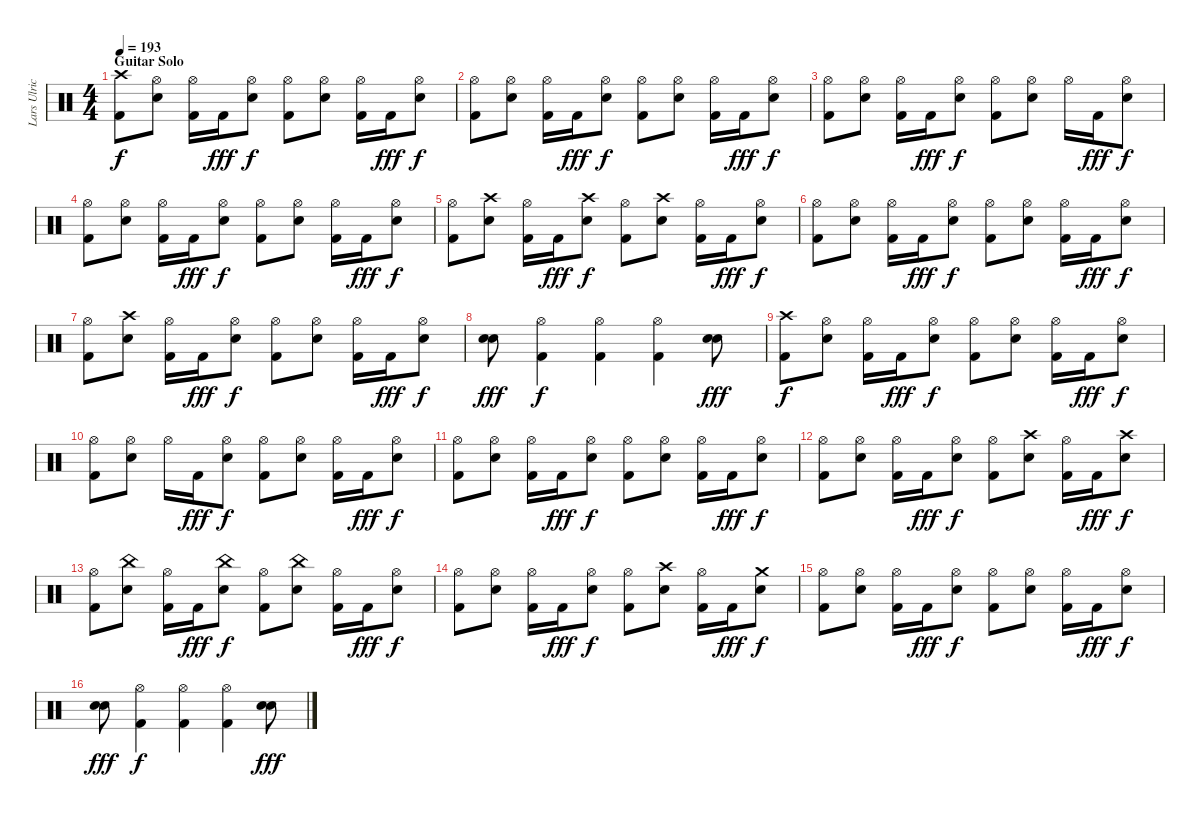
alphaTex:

\track ("Lars Ulrich - Drums" "Lars Ulric") {instrument percussion}
\staff {score}
\articulation defaults
\ts (4 4)
\section ("" "Guitar Solo")
\tempo 193
\clef neutral
\ks c
("Crash high (hit)" "Kick (hit) 2").8{dy f} ("Hi-Hat (open)" "Snare (hit) 2").8 ("Hi-Hat (open)" "Kick (hit) 2").16 "Kick (hit) 2".16{dy fff} ("Hi-Hat (open)" "Snare (hit) 2").8{dy f} ("Hi-Hat (open)" "Kick (hit) 2").8 ("Hi-Hat (open)" "Snare (hit) 2").8 ("Hi-Hat (open)" "Kick (hit) 2").16 "Kick (hit) 2".16{dy fff} ("Hi-Hat (open)" "Snare (hit) 2").8{dy f} |
("Hi-Hat (open)" "Kick (hit) 2").8 ("Hi-Hat (open)" "Snare (hit) 2").8 ("Hi-Hat (open)" "Kick (hit) 2").16 "Kick (hit) 2".16{dy fff} ("Hi-Hat (open)" "Snare (hit) 2").8{dy f} ("Hi-Hat (open)" "Kick (hit) 2").8 ("Hi-Hat (open)" "Snare (hit) 2").8 ("Hi-Hat (open)" "Kick (hit) 2").16 "Kick (hit) 2".16{dy fff} ("Hi-Hat (open)" "Snare (hit) 2").8{dy f} |
("Hi-Hat (open)" "Kick (hit) 2").8 ("Hi-Hat (open)" "Snare (hit) 2").8 ("Hi-Hat (open)" "Kick (hit) 2").16 "Kick (hit) 2".16{dy fff} ("Hi-Hat (open)" "Snare (hit) 2").8{dy f} ("Hi-Hat (open)" "Kick (hit) 2").8 ("Hi-Hat (open)" "Snare (hit) 2").8 "Hi-Hat (open)".16 "Kick (hit) 2".16{dy fff} ("Hi-Hat (open)" "Snare (hit) 2").8{dy f} |
("Hi-Hat (open)" "Kick (hit) 2").8 ("Hi-Hat (open)" "Snare (hit) 2").8 ("Hi-Hat (open)" "Kick (hit) 2").16 "Kick (hit) 2".16{dy fff} ("Hi-Hat (open)" "Snare (hit) 2").8{dy f} ("Hi-Hat (open)" "Kick (hit) 2").8 ("Hi-Hat (open)" "Snare (hit) 2").8 ("Hi-Hat (open)" "Kick (hit) 2").16 "Kick (hit) 2".16{dy fff} ("Hi-Hat (open)" "Snare (hit) 2").8{dy f} |
("Hi-Hat (open)" "Kick (hit) 2").8 ("Crash high (hit)" "Snare (hit) 2").8 ("Hi-Hat (open)" "Kick (hit) 2").16 "Kick (hit) 2".16{dy fff} ("Crash high (hit)" "Snare (hit) 2").8{dy f} ("Hi-Hat (open)" "Kick (hit) 2").8 ("Crash high (hit)" "Snare (hit) 2").8 ("Hi-Hat (open)" "Kick (hit) 2").16 "Kick (hit) 2".16{dy fff} ("Hi-Hat (open)" "Snare (hit) 2").8{dy f} |
("Hi-Hat (open)" "Kick (hit) 2").8 ("Hi-Hat (open)" "Snare (hit) 2").8 ("Hi-Hat (open)" "Kick (hit) 2").16 "Kick (hit) 2".16{dy fff} ("Hi-Hat (open)" "Snare (hit) 2").8{dy f} ("Hi-Hat (open)" "Kick (hit) 2").8 ("Hi-Hat (open)" "Snare (hit) 2").8 ("Hi-Hat (open)" "Kick (hit) 2").16 "Kick (hit) 2".16{dy fff} ("Hi-Hat (open)" "Snare (hit) 2").8{dy f} |
("Hi-Hat (open)" "Kick (hit) 2").8 ("Crash high (hit)" "Snare (hit) 2").8 ("Hi-Hat (open)" "Kick (hit) 2").16 "Kick (hit) 2".16{dy fff} ("Hi-Hat (open)" "Snare (hit) 2").8{dy f} ("Hi-Hat (open)" "Kick (hit) 2").8 ("Hi-Hat (open)" "Snare (hit) 2").8 ("Hi-Hat (open)" "Kick (hit) 2").16 "Kick (hit) 2".16{dy fff} ("Hi-Hat (open)" "Snare (hit) 2").8{dy f} |
("Snare (hit) 2" "Snare (hit) 2").8{dy fff} ("Hi-Hat (open)" "Kick (hit) 2").4{dy f} ("Hi-Hat (open)" "Kick (hit) 2").4 ("Hi-Hat (open)" "Kick (hit) 2").4 ("Snare (hit) 2" "Snare (hit) 2").8{dy fff} |
("Crash high (hit)" "Kick (hit) 2").8{dy f} ("Hi-Hat (open)" "Snare (hit) 2").8 ("Hi-Hat (open)" "Kick (hit) 2").16 "Kick (hit) 2".16{dy fff} ("Hi-Hat (open)" "Snare (hit) 2").8{dy f} ("Hi-Hat (open)" "Kick (hit) 2").8 ("Hi-Hat (open)" "Snare (hit) 2").8 ("Hi-Hat (open)" "Kick (hit) 2").16 "Kick (hit) 2".16{dy fff} ("Hi-Hat (open)" "Snare (hit) 2").8{dy f} |
("Hi-Hat (open)" "Kick (hit) 2").8 ("Hi-Hat (open)" "Snare (hit) 2").8 "Hi-Hat (open)".16 "Kick (hit) 2".16{dy fff} ("Hi-Hat (open)" "Snare (hit) 2").8{dy f} ("Hi-Hat (open)" "Kick (hit) 2").8 ("Hi-Hat (open)" "Snare (hit) 2").8 ("Hi-Hat (open)" "Kick (hit) 2").16 "Kick (hit) 2".16{dy fff} ("Hi-Hat (open)" "Snare (hit) 2").8{dy f} |
("Hi-Hat (open)" "Kick (hit) 2").8 ("Hi-Hat (open)" "Snare (hit) 2").8 ("Hi-Hat (open)" "Kick (hit) 2").16 "Kick (hit) 2".16{dy fff} ("Hi-Hat (open)" "Snare (hit) 2").8{dy f} ("Hi-Hat (open)" "Kick (hit) 2").8 ("Hi-Hat (open)" "Snare (hit) 2").8 ("Hi-Hat (open)" "Kick (hit) 2").16 "Kick (hit) 2".16{dy fff} ("Hi-Hat (open)" "Snare (hit) 2").8{dy f} |
("Hi-Hat (open)" "Kick (hit) 2").8 ("Hi-Hat (open)" "Snare (hit) 2").8 ("Hi-Hat (open)" "Kick (hit) 2").16 "Kick (hit) 2".16{dy fff} ("Hi-Hat (open)" "Snare (hit) 2").8{dy f} ("Hi-Hat (open)" "Kick (hit) 2").8 ("Crash high (hit)" "Snare (hit) 2").8 ("Hi-Hat (open)" "Kick (hit) 2").16 "Kick (hit) 2".16{dy fff} ("Crash high (hit)" "Snare (hit) 2").8{dy f} |
("Hi-Hat (open)" "Kick (hit) 2").8 ("China (hit)" "Snare (hit) 2").8 ("Hi-Hat (open)" "Kick (hit) 2").16 "Kick (hit) 2".16{dy fff} ("China (hit)" "Snare (hit) 2").8{dy f} ("Hi-Hat (open)" "Kick (hit) 2").8 ("China (hit)" "Snare (hit) 2").8 ("Hi-Hat (open)" "Kick (hit) 2").16 "Kick (hit) 2".16{dy fff} ("Hi-Hat (open)" "Snare (hit) 2").8{dy f} |
("Hi-Hat (open)" "Kick (hit) 2").8 ("Hi-Hat (open)" "Snare (hit) 2").8 ("Hi-Hat (open)" "Kick (hit) 2").16 "Kick (hit) 2".16{dy fff} ("Hi-Hat (open)" "Snare (hit) 2").8{dy f} ("Hi-Hat (open)" "Kick (hit) 2").8 ("Crash high (hit)" "Snare (hit) 2").8 ("Hi-Hat (open)" "Kick (hit) 2").16 "Kick (hit) 2".16{dy fff} ("Crash medium (hit)" "Snare (hit) 2").8{dy f} |
("Hi-Hat (open)" "Kick (hit) 2").8 ("Hi-Hat (open)" "Snare (hit) 2").8 ("Hi-Hat (open)" "Kick (hit) 2").16 "Kick (hit) 2".16{dy fff} ("Hi-Hat (open)" "Snare (hit) 2").8{dy f} ("Hi-Hat (open)" "Kick (hit) 2").8 ("Hi-Hat (open)" "Snare (hit) 2").8 ("Hi-Hat (open)" "Kick (hit) 2").16 "Kick (hit) 2".16{dy fff} ("Hi-Hat (open)" "Snare (hit) 2").8{dy f} |
("Snare (hit) 2" "Snare (hit) 2").8{dy fff} ("Hi-Hat (open)" "Kick (hit) 2").4{dy f} ("Hi-Hat (open)" "Kick (hit) 2").4 ("Hi-Hat (open)" "Kick (hit) 2").4 ("Snare (hit) 2" "Snare (hit) 2").8{dy fff}
